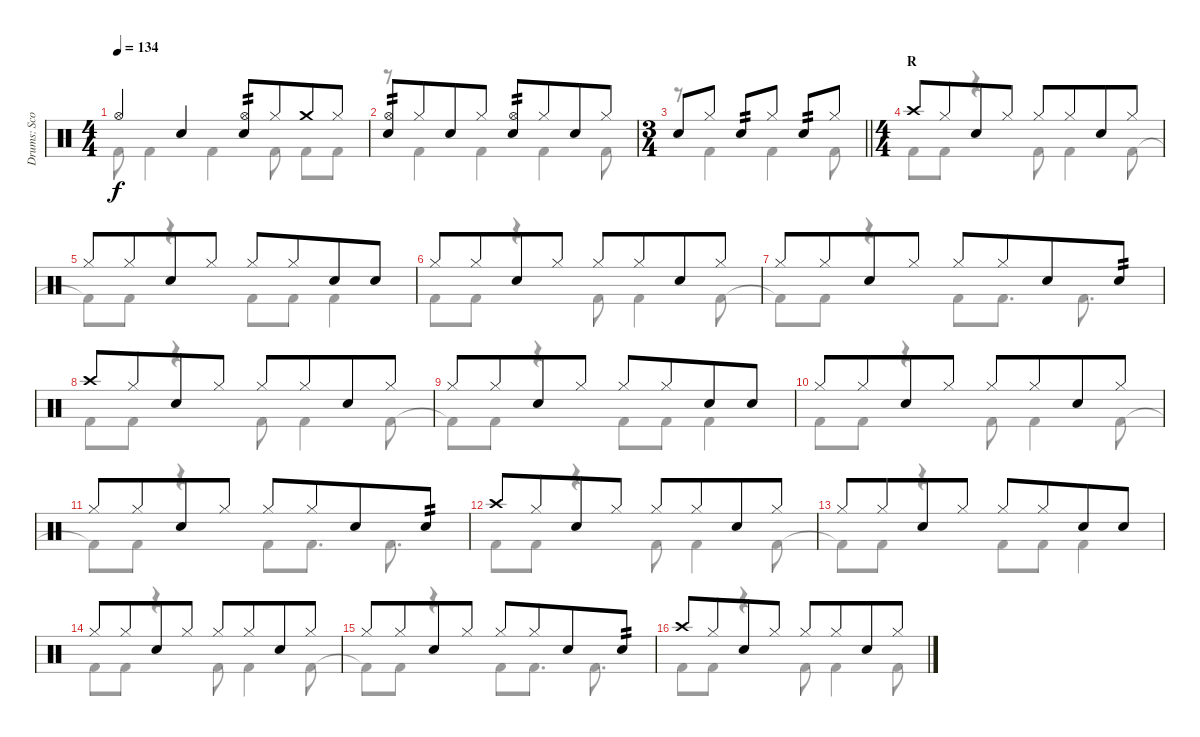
\track ("Drums: Scott" "Drums: Sco") {instrument percussion}
\staff {score}
\articulation defaults
\voice
\ts (4 4)
\tempo 134
\clef neutral
\ks c "Hi-Hat (open)".4{dy f} "Snare (hit) 2".4
("Hi-Hat (open)" "Snare (hit) 2").8{tp 2} "Hi-Hat (closed)".8{beam merge} "Crash medium (hit)".8 "Hi-Hat (closed)".8 |
("Hi-Hat (open)" "Snare (hit) 2").8{tp 2} "Hi-Hat (closed)".8{beam merge} "Snare (hit) 2".8 "Hi-Hat (closed)".8 ("Hi-Hat (open)" "Snare (hit) 2").8{tp 2} "Hi-Hat (closed)".8{beam merge} "Snare (hit) 2".8 "Hi-Hat (closed)".8 |
\ts (3 4)
\barLineRight lightlight "Snare (hit) 2".8 "Hi-Hat (closed)".8 "Snare (hit) 2".8{tp 2} "Hi-Hat (closed)".8 "Snare (hit) 2".8{tp 2} "Hi-Hat (closed)".8
|
\ts (4 4)
\section ("" "R")
"Crash high (hit)".8 "Hi-Hat (closed)".8{beam merge} "Snare (hit) 2".8 "Hi-Hat (closed)".8 "Hi-Hat (closed)".8 "Hi-Hat (closed)".8{beam merge} "Snare (hit) 2".8 "Hi-Hat (closed)".8 |
"Hi-Hat (closed)".8 "Hi-Hat (closed)".8{beam merge} "Snare (hit) 2".8 "Hi-Hat (closed)".8 "Hi-Hat (closed)".8 "Hi-Hat (closed)".8{beam merge} "Snare (hit) 2".8 "Snare (hit) 2".8 |
"Hi-Hat (closed)".8 "Hi-Hat (closed)".8{beam merge} "Snare (hit) 2".8 "Hi-Hat (closed)".8 "Hi-Hat (closed)".8 "Hi-Hat (closed)".8{beam merge} "Snare (hit) 2".8 "Hi-Hat (closed)".8 |
"Hi-Hat (closed)".8 "Hi-Hat (closed)".8{beam merge} "Snare (hit) 2".8 "Hi-Hat (closed)".8 "Hi-Hat (closed)".8 "Hi-Hat (closed)".8{beam merge} "Snare (hit) 2".8 "Snare (hit) 2".8{tp 2} |
"Crash high (hit)".8 "Hi-Hat (closed)".8{beam merge} "Snare (hit) 2".8 "Hi-Hat (closed)".8 "Hi-Hat (closed)".8 "Hi-Hat (closed)".8{beam merge} "Snare (hit) 2".8 "Hi-Hat (closed)".8 |
"Hi-Hat (closed)".8 "Hi-Hat (closed)".8{beam merge} "Snare (hit) 2".8 "Hi-Hat (closed)".8 "Hi-Hat (closed)".8 "Hi-Hat (closed)".8{beam merge} "Snare (hit) 2".8 "Snare (hit) 2".8 |
"Hi-Hat (closed)".8 "Hi-Hat (closed)".8{beam merge} "Snare (hit) 2".8 "Hi-Hat (closed)".8 "Hi-Hat (closed)".8 "Hi-Hat (closed)".8{beam merge} "Snare (hit) 2".8 "Hi-Hat (closed)".8 |
"Hi-Hat (closed)".8 "Hi-Hat (closed)".8{beam merge} "Snare (hit) 2".8 "Hi-Hat (closed)".8 "Hi-Hat (closed)".8 "Hi-Hat (closed)".8{beam merge} "Snare (hit) 2".8 "Snare (hit) 2".8{tp 2} |
"Crash high (hit)".8 "Hi-Hat (closed)".8{beam merge} "Snare (hit) 2".8 "Hi-Hat (closed)".8 "Hi-Hat (closed)".8 "Hi-Hat (closed)".8{beam merge} "Snare (hit) 2".8 "Hi-Hat (closed)".8 |
"Hi-Hat (closed)".8 "Hi-Hat (closed)".8{beam merge} "Snare (hit) 2".8 "Hi-Hat (closed)".8 "Hi-Hat (closed)".8 "Hi-Hat (closed)".8{beam merge} "Snare (hit) 2".8 "Snare (hit) 2".8 |
"Hi-Hat (closed)".8 "Hi-Hat (closed)".8{beam merge} "Snare (hit) 2".8 "Hi-Hat (closed)".8 "Hi-Hat (closed)".8 "Hi-Hat (closed)".8{beam merge} "Snare (hit) 2".8 "Hi-Hat (closed)".8 |
"Hi-Hat (closed)".8 "Hi-Hat (closed)".8{beam merge} "Snare (hit) 2".8 "Hi-Hat (closed)".8 "Hi-Hat (closed)".8 "Hi-Hat (closed)".8{beam merge} "Snare (hit) 2".8 "Snare (hit) 2".8{tp 2} |
"Crash high (hit)".8 "Hi-Hat (closed)".8{beam merge} "Snare (hit) 2".8 "Hi-Hat (closed)".8 "Hi-Hat (closed)".8 "Hi-Hat (closed)".8{beam merge} "Snare (hit) 2".8 "Hi-Hat (closed)".8
\voice
\clef neutral
\ottava regular
\simile none
\ks c "Kick (hit) 2".8{dy f} "Kick (hit) 2".4 "Kick (hit) 2".4 "Kick (hit) 2".8 "Kick (hit) 2".8 "Kick (hit) 2".8
|
r.8 "Kick (hit) 2".4 "Kick (hit) 2".4 "Kick (hit) 2".4 "Kick (hit) 2".8 |
\barLineRight lightlight
r.8 "Kick (hit) 2".4 "Kick (hit) 2".4 "Kick (hit) 2".8 |
"Kick (hit) 2".8 "Kick (hit) 2".8 r.4 "Kick (hit) 2".8 "Kick (hit) 2".4 "Kick (hit) 2".8 |
"Kick (hit) 2"{t}.8 "Kick (hit) 2".8 r.4 "Kick (hit) 2".8 "Kick (hit) 2".8 "Kick (hit) 2".4 |
"Kick (hit) 2".8 "Kick (hit) 2".8 r.4 "Kick (hit) 2".8 "Kick (hit) 2".4 "Kick (hit) 2".8 |
"Kick (hit) 2"{t}.8 "Kick (hit) 2".8 r.4 "Kick (hit) 2".8 "Kick (hit) 2".8{d} "Kick (hit) 2".8{d} |
"Kick (hit) 2".8 "Kick (hit) 2".8 r.4 "Kick (hit) 2".8 "Kick (hit) 2".4 "Kick (hit) 2".8 |
"Kick (hit) 2"{t}.8 "Kick (hit) 2".8 r.4 "Kick (hit) 2".8 "Kick (hit) 2".8 "Kick (hit) 2".4 |
"Kick (hit) 2".8 "Kick (hit) 2".8 r.4 "Kick (hit) 2".8 "Kick (hit) 2".4 "Kick (hit) 2".8 |
"Kick (hit) 2"{t}.8 "Kick (hit) 2".8 r.4 "Kick (hit) 2".8 "Kick (hit) 2".8{d} "Kick (hit) 2".8{d} |
"Kick (hit) 2".8 "Kick (hit) 2".8 r.4 "Kick (hit) 2".8 "Kick (hit) 2".4 "Kick (hit) 2".8 |
"Kick (hit) 2"{t}.8 "Kick (hit) 2".8 r.4 "Kick (hit) 2".8 "Kick (hit) 2".8 "Kick (hit) 2".4 |
"Kick (hit) 2".8 "Kick (hit) 2".8 r.4 "Kick (hit) 2".8 "Kick (hit) 2".4 "Kick (hit) 2".8 |
"Kick (hit) 2"{t}.8 "Kick (hit) 2".8 r.4 "Kick (hit) 2".8 "Kick (hit) 2".8{d} "Kick (hit) 2".8{d} |
"Kick (hit) 2".8 "Kick (hit) 2".8 r.4 "Kick (hit) 2".8 "Kick (hit) 2".4 "Kick (hit) 2".8
